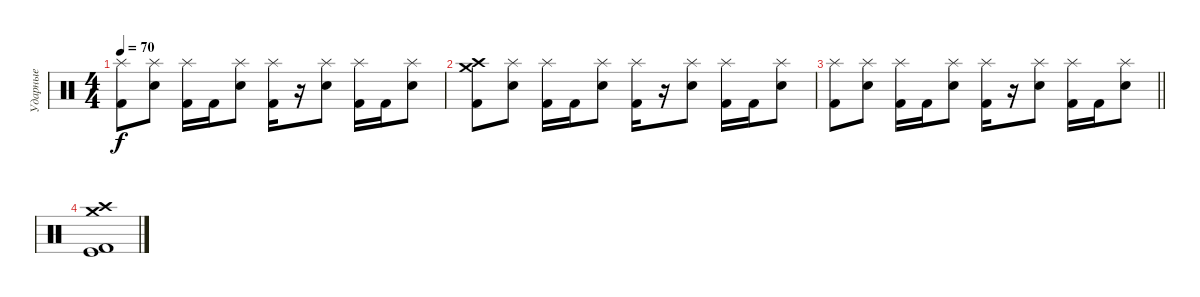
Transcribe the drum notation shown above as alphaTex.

\track ("Ударные" "Ударные") {instrument percussion}
\staff {score}
\articulation defaults
\ts (4 4)
\tempo 70
\clef neutral
\ks c
("Splash (hit)" "Kick (hit) 2").8{dy f} ("Splash (hit)" "Electric Snare (hit)").8 ("Splash (hit)" "Kick (hit) 2").16 "Kick (hit) 2".16 ("Splash (hit)" "Electric Snare (hit)").8 ("Splash (hit)" "Kick (hit) 2").16 r.16 ("Splash (hit)" "Electric Snare (hit)").8 ("Splash (hit)" "Kick (hit) 2").16 "Kick (hit) 2".16 ("Splash (hit)" "Electric Snare (hit)").8 |
("Crash high (hit)" "Crash medium (hit)" "Kick (hit) 2").8 ("Splash (hit)" "Electric Snare (hit)").8 ("Splash (hit)" "Kick (hit) 2").16 "Kick (hit) 2".16 ("Splash (hit)" "Electric Snare (hit)").8 ("Splash (hit)" "Kick (hit) 2").16 r.16 ("Splash (hit)" "Electric Snare (hit)").8 ("Splash (hit)" "Kick (hit) 2").16 "Kick (hit) 2".16 ("Splash (hit)" "Electric Snare (hit)").8 |
\barLineRight lightlight
("Splash (hit)" "Kick (hit) 2").8 ("Splash (hit)" "Electric Snare (hit)").8 ("Splash (hit)" "Kick (hit) 2").16 "Kick (hit) 2".16 ("Splash (hit)" "Electric Snare (hit)").8 ("Splash (hit)" "Kick (hit) 2").16 r.16 ("Splash (hit)" "Electric Snare (hit)").8 ("Splash (hit)" "Kick (hit) 2").16 "Kick (hit) 2".16 ("Splash (hit)" "Electric Snare (hit)").8 |
("Kick (hit)" "Kick (hit) 2" "Crash high (hit)" "Crash medium (hit)").1
